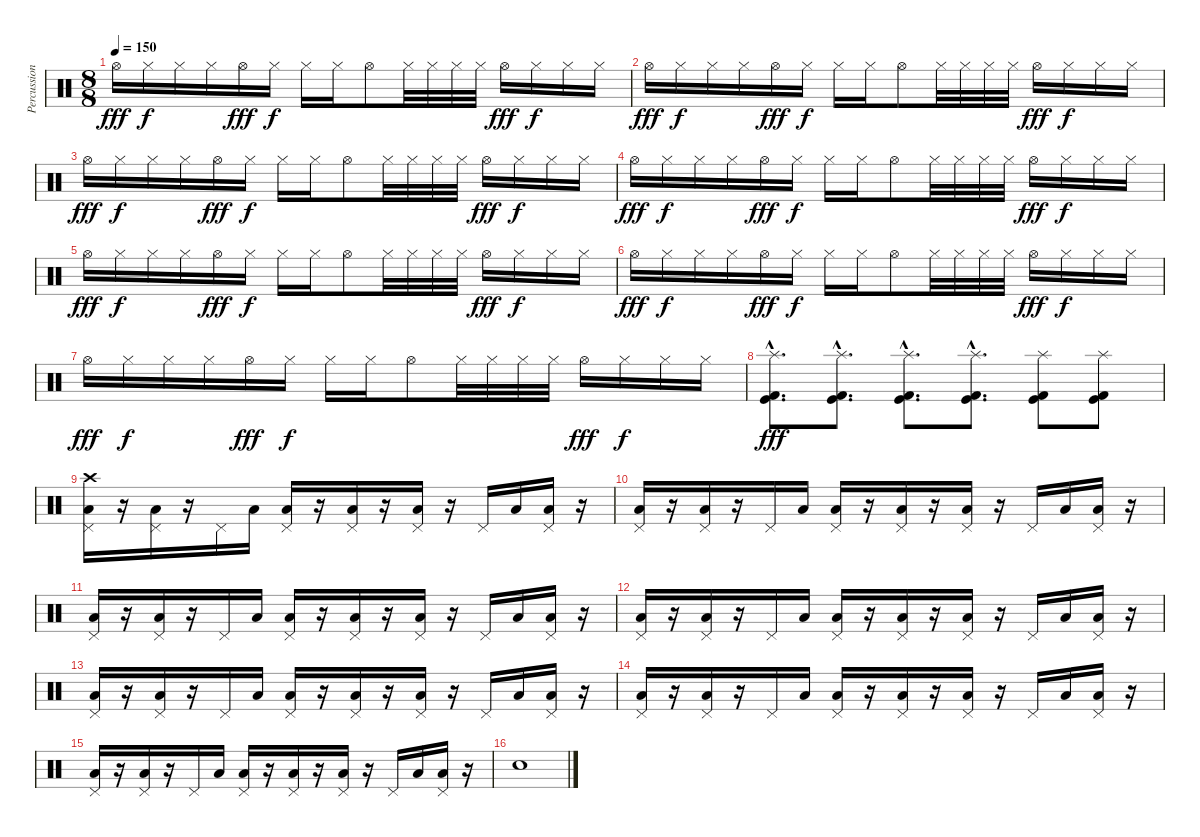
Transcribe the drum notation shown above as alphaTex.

\track ("Percussion" "Percussion") {instrument percussion}
\staff {score}
\articulation defaults
\ts (8 8)
\tempo 150
\clef neutral
\ks c "Hi-Hat (open)".16{dy fff} "Hi-Hat (closed)".16{dy f} "Hi-Hat (closed)".16 "Hi-Hat (closed)".16 "Hi-Hat (open)".16{dy fff} "Hi-Hat (closed)".16{dy f} "Hi-Hat (closed)".16 "Hi-Hat (closed)".16 "Hi-Hat (open)".8 "Hi-Hat (closed)".32 "Hi-Hat (closed)".32 "Hi-Hat (closed)".32 "Hi-Hat (closed)".32 "Hi-Hat (open)".16{dy fff} "Hi-Hat (closed)".16{dy f} "Hi-Hat (closed)".16 "Hi-Hat (closed)".16
|
"Hi-Hat (open)".16{dy fff} "Hi-Hat (closed)".16{dy f} "Hi-Hat (closed)".16 "Hi-Hat (closed)".16 "Hi-Hat (open)".16{dy fff} "Hi-Hat (closed)".16{dy f} "Hi-Hat (closed)".16 "Hi-Hat (closed)".16 "Hi-Hat (open)".8 "Hi-Hat (closed)".32 "Hi-Hat (closed)".32 "Hi-Hat (closed)".32 "Hi-Hat (closed)".32 "Hi-Hat (open)".16{dy fff} "Hi-Hat (closed)".16{dy f} "Hi-Hat (closed)".16 "Hi-Hat (closed)".16 |
"Hi-Hat (open)".16{dy fff} "Hi-Hat (closed)".16{dy f} "Hi-Hat (closed)".16 "Hi-Hat (closed)".16 "Hi-Hat (open)".16{dy fff} "Hi-Hat (closed)".16{dy f} "Hi-Hat (closed)".16 "Hi-Hat (closed)".16 "Hi-Hat (open)".8 "Hi-Hat (closed)".32 "Hi-Hat (closed)".32 "Hi-Hat (closed)".32 "Hi-Hat (closed)".32 "Hi-Hat (open)".16{dy fff} "Hi-Hat (closed)".16{dy f} "Hi-Hat (closed)".16 "Hi-Hat (closed)".16 |
"Hi-Hat (open)".16{dy fff} "Hi-Hat (closed)".16{dy f} "Hi-Hat (closed)".16 "Hi-Hat (closed)".16 "Hi-Hat (open)".16{dy fff} "Hi-Hat (closed)".16{dy f} "Hi-Hat (closed)".16 "Hi-Hat (closed)".16 "Hi-Hat (open)".8 "Hi-Hat (closed)".32 "Hi-Hat (closed)".32 "Hi-Hat (closed)".32 "Hi-Hat (closed)".32 "Hi-Hat (open)".16{dy fff} "Hi-Hat (closed)".16{dy f} "Hi-Hat (closed)".16 "Hi-Hat (closed)".16 |
"Hi-Hat (open)".16{dy fff} "Hi-Hat (closed)".16{dy f} "Hi-Hat (closed)".16 "Hi-Hat (closed)".16 "Hi-Hat (open)".16{dy fff} "Hi-Hat (closed)".16{dy f} "Hi-Hat (closed)".16 "Hi-Hat (closed)".16 "Hi-Hat (open)".8 "Hi-Hat (closed)".32 "Hi-Hat (closed)".32 "Hi-Hat (closed)".32 "Hi-Hat (closed)".32 "Hi-Hat (open)".16{dy fff} "Hi-Hat (closed)".16{dy f} "Hi-Hat (closed)".16 "Hi-Hat (closed)".16 |
"Hi-Hat (open)".16{dy fff} "Hi-Hat (closed)".16{dy f} "Hi-Hat (closed)".16 "Hi-Hat (closed)".16 "Hi-Hat (open)".16{dy fff} "Hi-Hat (closed)".16{dy f} "Hi-Hat (closed)".16 "Hi-Hat (closed)".16 "Hi-Hat (open)".8 "Hi-Hat (closed)".32 "Hi-Hat (closed)".32 "Hi-Hat (closed)".32 "Hi-Hat (closed)".32 "Hi-Hat (open)".16{dy fff} "Hi-Hat (closed)".16{dy f} "Hi-Hat (closed)".16 "Hi-Hat (closed)".16 |
"Hi-Hat (open)".16{dy fff} "Hi-Hat (closed)".16{dy f} "Hi-Hat (closed)".16 "Hi-Hat (closed)".16 "Hi-Hat (open)".16{dy fff} "Hi-Hat (closed)".16{dy f} "Hi-Hat (closed)".16 "Hi-Hat (closed)".16 "Hi-Hat (open)".8 "Hi-Hat (closed)".32 "Hi-Hat (closed)".32 "Hi-Hat (closed)".32 "Hi-Hat (closed)".32 "Hi-Hat (open)".16{dy fff} "Hi-Hat (closed)".16{dy f} "Hi-Hat (closed)".16 "Hi-Hat (closed)".16 |
("Splash (hit)"{hac} "Kick (hit)"{hac} "Kick (hit) 2"{hac}).8{d dy fff} ("Splash (hit)"{hac} "Kick (hit)"{hac} "Kick (hit) 2"{hac}).8{d} ("Splash (hit)"{hac} "Kick (hit)"{hac} "Kick (hit) 2"{hac}).8{d} ("Splash (hit)"{hac} "Kick (hit)"{hac} "Kick (hit) 2"{hac}).8{d} ("Splash (hit)" "Kick (hit)" "Kick (hit) 2").8 ("Splash (hit)" "Kick (hit)" "Kick (hit) 2").8 |
("Crash high (hit)" "Pedal Hi-Hat (hit)" "Low Floor Tom (hit)").16 r.16 ("Pedal Hi-Hat (hit)" "Low Tom (hit)").16 r.16 "Pedal Hi-Hat (hit)".16 "Low Floor Tom (hit)".16 ("Pedal Hi-Hat (hit)" "Low Tom (hit)").16 r.16 ("Pedal Hi-Hat (hit)" "Low Floor Tom (hit)").16 r.16 ("Pedal Hi-Hat (hit)" "Low Tom (hit)").16 r.16 "Pedal Hi-Hat (hit)".16 "Low Floor Tom (hit)".16 ("Pedal Hi-Hat (hit)" "Low Tom (hit)").16 r.16 |
("Pedal Hi-Hat (hit)" "Low Floor Tom (hit)").16 r.16 ("Pedal Hi-Hat (hit)" "Low Tom (hit)").16 r.16 "Pedal Hi-Hat (hit)".16 "Low Floor Tom (hit)".16 ("Pedal Hi-Hat (hit)" "Low Tom (hit)").16 r.16 ("Pedal Hi-Hat (hit)" "Low Floor Tom (hit)").16 r.16 ("Pedal Hi-Hat (hit)" "Low Tom (hit)").16 r.16 "Pedal Hi-Hat (hit)".16 "Low Tom (hit)".16 ("Pedal Hi-Hat (hit)" "Low Tom (hit)").16 r.16 |
("Pedal Hi-Hat (hit)" "Low Floor Tom (hit)").16 r.16 ("Pedal Hi-Hat (hit)" "Low Tom (hit)").16 r.16 "Pedal Hi-Hat (hit)".16 "Low Floor Tom (hit)".16 ("Pedal Hi-Hat (hit)" "Low Tom (hit)").16 r.16 ("Pedal Hi-Hat (hit)" "Low Floor Tom (hit)").16 r.16 ("Pedal Hi-Hat (hit)" "Low Tom (hit)").16 r.16 "Pedal Hi-Hat (hit)".16 "Low Floor Tom (hit)".16 ("Pedal Hi-Hat (hit)" "Low Tom (hit)").16 r.16 |
("Pedal Hi-Hat (hit)" "Low Floor Tom (hit)").16 r.16 ("Pedal Hi-Hat (hit)" "Low Tom (hit)").16 r.16 "Pedal Hi-Hat (hit)".16 "Low Floor Tom (hit)".16 ("Pedal Hi-Hat (hit)" "Low Tom (hit)").16 r.16 ("Pedal Hi-Hat (hit)" "Low Floor Tom (hit)").16 r.16 ("Pedal Hi-Hat (hit)" "Low Tom (hit)").16 r.16 "Pedal Hi-Hat (hit)".16 "Low Tom (hit)".16 ("Pedal Hi-Hat (hit)" "Low Tom (hit)").16 r.16 |
("Pedal Hi-Hat (hit)" "Low Floor Tom (hit)").16 r.16 ("Pedal Hi-Hat (hit)" "Low Tom (hit)").16 r.16 "Pedal Hi-Hat (hit)".16 "Low Floor Tom (hit)".16 ("Pedal Hi-Hat (hit)" "Low Tom (hit)").16 r.16 ("Pedal Hi-Hat (hit)" "Low Floor Tom (hit)").16 r.16 ("Pedal Hi-Hat (hit)" "Low Tom (hit)").16 r.16 "Pedal Hi-Hat (hit)".16 "Low Floor Tom (hit)".16 ("Pedal Hi-Hat (hit)" "Low Tom (hit)").16 r.16 |
("Pedal Hi-Hat (hit)" "Low Floor Tom (hit)").16 r.16 ("Pedal Hi-Hat (hit)" "Low Tom (hit)").16 r.16 "Pedal Hi-Hat (hit)".16 "Low Floor Tom (hit)".16 ("Pedal Hi-Hat (hit)" "Low Tom (hit)").16 r.16 ("Pedal Hi-Hat (hit)" "Low Floor Tom (hit)").16 r.16 ("Pedal Hi-Hat (hit)" "Low Tom (hit)").16 r.16 "Pedal Hi-Hat (hit)".16 "Low Tom (hit)".16 ("Pedal Hi-Hat (hit)" "Low Tom (hit)").16 r.16 |
("Pedal Hi-Hat (hit)" "Low Floor Tom (hit)").16 r.16 ("Pedal Hi-Hat (hit)" "Low Tom (hit)").16 r.16 "Pedal Hi-Hat (hit)".16 "Low Floor Tom (hit)".16 ("Pedal Hi-Hat (hit)" "Low Tom (hit)").16 r.16 ("Pedal Hi-Hat (hit)" "Low Floor Tom (hit)").16 r.16 ("Pedal Hi-Hat (hit)" "Low Tom (hit)").16 r.16 "Pedal Hi-Hat (hit)".16 "Low Floor Tom (hit)".16 ("Pedal Hi-Hat (hit)" "Low Tom (hit)").16 r.16 |
"Electric Snare (hit)".1
